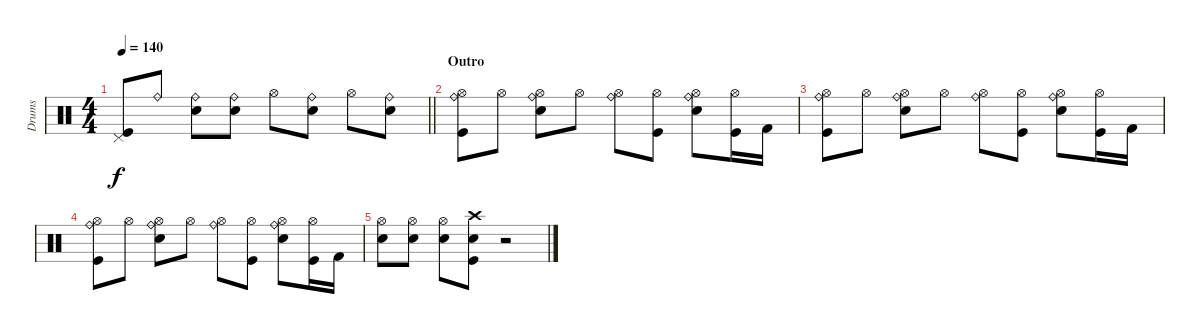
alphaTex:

\track ("Drums" "Drums") {instrument percussion}
\staff {score}
\articulation defaults
\ts (4 4)
\tempo 140
\clef neutral
\barLineRight lightlight
\ks c
("Pedal Hi-Hat (hit)" "Kick (hit)").8{dy f} "Ride (bell)".8 ("Ride (bell)" "Snare (hit) 2").8 ("Ride (bell)" "Snare (hit) 2").8 "Hi-Hat (open)".8 ("Ride (bell)" "Snare (hit) 2").8 "Hi-Hat (open)".8 ("Ride (bell)" "Snare (hit) 2").8 |
\section ("" "Outro")
("Ride (bell)" "Hi-Hat (open)" "Kick (hit)").8 "Hi-Hat (open)".8 ("Ride (bell)" "Hi-Hat (open)" "Snare (hit) 2").8 "Hi-Hat (open)".8 ("Ride (bell)" "Hi-Hat (open)").8 ("Hi-Hat (open)" "Kick (hit)").8 ("Ride (bell)" "Hi-Hat (open)" "Snare (hit) 2").8 ("Hi-Hat (open)" "Kick (hit)").16 "Kick (hit) 2".16 |
("Ride (bell)" "Hi-Hat (open)" "Kick (hit)").8 "Hi-Hat (open)".8 ("Ride (bell)" "Hi-Hat (open)" "Snare (hit) 2").8 "Hi-Hat (open)".8 ("Ride (bell)" "Hi-Hat (open)").8 ("Hi-Hat (open)" "Kick (hit)").8 ("Ride (bell)" "Hi-Hat (open)" "Snare (hit) 2").8 ("Hi-Hat (open)" "Kick (hit)").16 "Kick (hit) 2".16 |
("Ride (bell)" "Hi-Hat (open)" "Kick (hit)").8 "Hi-Hat (open)".8 ("Ride (bell)" "Hi-Hat (open)" "Snare (hit) 2").8 "Hi-Hat (open)".8 ("Ride (bell)" "Hi-Hat (open)").8 ("Hi-Hat (open)" "Kick (hit)").8 ("Ride (bell)" "Hi-Hat (open)" "Snare (hit) 2").8 ("Hi-Hat (open)" "Kick (hit)").16 "Kick (hit) 2".16 |
("Hi-Hat (open)" "Snare (hit) 2").8 ("Hi-Hat (open)" "Snare (hit) 2").8 ("Hi-Hat (open)" "Snare (hit) 2").8 ("Crash high (hit)" "Snare (hit) 2" "Kick (hit)").8 r.2
